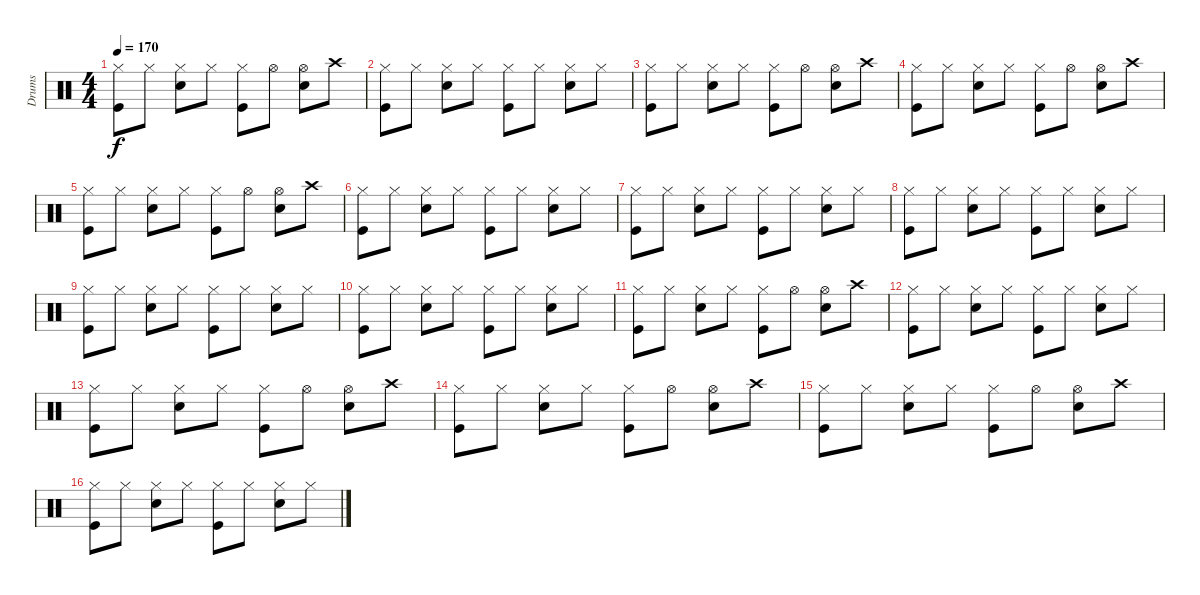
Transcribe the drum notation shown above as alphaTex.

\track ("Drums" "Drums") {instrument percussion}
\staff {score}
\articulation defaults
\ts (4 4)
\tempo 170
\clef neutral
\ks c
("Hi-Hat (closed)" "Kick (hit)").8{dy f} "Hi-Hat (closed)".8 ("Hi-Hat (closed)" "Electric Snare (hit)").8 "Hi-Hat (closed)".8 ("Hi-Hat (closed)" "Kick (hit)").8 "Hi-Hat (open)".8 ("Hi-Hat (open)" "Electric Snare (hit)").8 "Crash high (hit)".8 |
("Hi-Hat (closed)" "Kick (hit)").8 "Hi-Hat (closed)".8 ("Hi-Hat (closed)" "Electric Snare (hit)").8 "Hi-Hat (closed)".8 ("Hi-Hat (closed)" "Kick (hit)").8 "Hi-Hat (closed)".8 ("Hi-Hat (closed)" "Electric Snare (hit)").8 "Hi-Hat (closed)".8 |
("Hi-Hat (closed)" "Kick (hit)").8 "Hi-Hat (closed)".8 ("Hi-Hat (closed)" "Electric Snare (hit)").8 "Hi-Hat (closed)".8 ("Hi-Hat (closed)" "Kick (hit)").8 "Hi-Hat (open)".8 ("Hi-Hat (open)" "Electric Snare (hit)").8 "Crash high (hit)".8 |
("Hi-Hat (closed)" "Kick (hit)").8 "Hi-Hat (closed)".8 ("Hi-Hat (closed)" "Electric Snare (hit)").8 "Hi-Hat (closed)".8 ("Hi-Hat (closed)" "Kick (hit)").8 "Hi-Hat (open)".8 ("Hi-Hat (open)" "Electric Snare (hit)").8 "Crash high (hit)".8 |
("Hi-Hat (closed)" "Kick (hit)").8 "Hi-Hat (closed)".8 ("Hi-Hat (closed)" "Electric Snare (hit)").8 "Hi-Hat (closed)".8 ("Hi-Hat (closed)" "Kick (hit)").8 "Hi-Hat (open)".8 ("Hi-Hat (open)" "Electric Snare (hit)").8 "Crash high (hit)".8 |
("Hi-Hat (closed)" "Kick (hit)").8 "Hi-Hat (closed)".8 ("Hi-Hat (closed)" "Electric Snare (hit)").8 "Hi-Hat (closed)".8 ("Hi-Hat (closed)" "Kick (hit)").8 "Hi-Hat (closed)".8 ("Hi-Hat (closed)" "Electric Snare (hit)").8 "Hi-Hat (closed)".8 |
("Hi-Hat (closed)" "Kick (hit)").8 "Hi-Hat (closed)".8 ("Hi-Hat (closed)" "Electric Snare (hit)").8 "Hi-Hat (closed)".8 ("Hi-Hat (closed)" "Kick (hit)").8 "Hi-Hat (closed)".8 ("Hi-Hat (closed)" "Electric Snare (hit)").8 "Hi-Hat (closed)".8 |
("Hi-Hat (closed)" "Kick (hit)").8 "Hi-Hat (closed)".8 ("Hi-Hat (closed)" "Electric Snare (hit)").8 "Hi-Hat (closed)".8 ("Hi-Hat (closed)" "Kick (hit)").8 "Hi-Hat (closed)".8 ("Hi-Hat (closed)" "Electric Snare (hit)").8 "Hi-Hat (closed)".8 |
("Hi-Hat (closed)" "Kick (hit)").8 "Hi-Hat (closed)".8 ("Hi-Hat (closed)" "Electric Snare (hit)").8 "Hi-Hat (closed)".8 ("Hi-Hat (closed)" "Kick (hit)").8 "Hi-Hat (closed)".8 ("Hi-Hat (closed)" "Electric Snare (hit)").8 "Hi-Hat (closed)".8 |
("Hi-Hat (closed)" "Kick (hit)").8 "Hi-Hat (closed)".8 ("Hi-Hat (closed)" "Electric Snare (hit)").8 "Hi-Hat (closed)".8 ("Hi-Hat (closed)" "Kick (hit)").8 "Hi-Hat (closed)".8 ("Hi-Hat (closed)" "Electric Snare (hit)").8 "Hi-Hat (closed)".8 |
("Hi-Hat (closed)" "Kick (hit)").8 "Hi-Hat (closed)".8 ("Hi-Hat (closed)" "Electric Snare (hit)").8 "Hi-Hat (closed)".8 ("Hi-Hat (closed)" "Kick (hit)").8 "Hi-Hat (open)".8 ("Hi-Hat (open)" "Electric Snare (hit)").8 "Crash high (hit)".8 |
("Hi-Hat (closed)" "Kick (hit)").8 "Hi-Hat (closed)".8 ("Hi-Hat (closed)" "Electric Snare (hit)").8 "Hi-Hat (closed)".8 ("Hi-Hat (closed)" "Kick (hit)").8 "Hi-Hat (closed)".8 ("Hi-Hat (closed)" "Electric Snare (hit)").8 "Hi-Hat (closed)".8 |
("Hi-Hat (closed)" "Kick (hit)").8 "Hi-Hat (closed)".8 ("Hi-Hat (closed)" "Electric Snare (hit)").8 "Hi-Hat (closed)".8 ("Hi-Hat (closed)" "Kick (hit)").8 "Hi-Hat (open)".8 ("Hi-Hat (open)" "Electric Snare (hit)").8 "Crash high (hit)".8 |
("Hi-Hat (closed)" "Kick (hit)").8 "Hi-Hat (closed)".8 ("Hi-Hat (closed)" "Electric Snare (hit)").8 "Hi-Hat (closed)".8 ("Hi-Hat (closed)" "Kick (hit)").8 "Hi-Hat (open)".8 ("Hi-Hat (open)" "Electric Snare (hit)").8 "Crash high (hit)".8 |
("Hi-Hat (closed)" "Kick (hit)").8 "Hi-Hat (closed)".8 ("Hi-Hat (closed)" "Electric Snare (hit)").8 "Hi-Hat (closed)".8 ("Hi-Hat (closed)" "Kick (hit)").8 "Hi-Hat (open)".8 ("Hi-Hat (open)" "Electric Snare (hit)").8 "Crash high (hit)".8 |
("Hi-Hat (closed)" "Kick (hit)").8 "Hi-Hat (closed)".8 ("Hi-Hat (closed)" "Electric Snare (hit)").8 "Hi-Hat (closed)".8 ("Hi-Hat (closed)" "Kick (hit)").8 "Hi-Hat (closed)".8 ("Hi-Hat (closed)" "Electric Snare (hit)").8 "Hi-Hat (closed)".8
